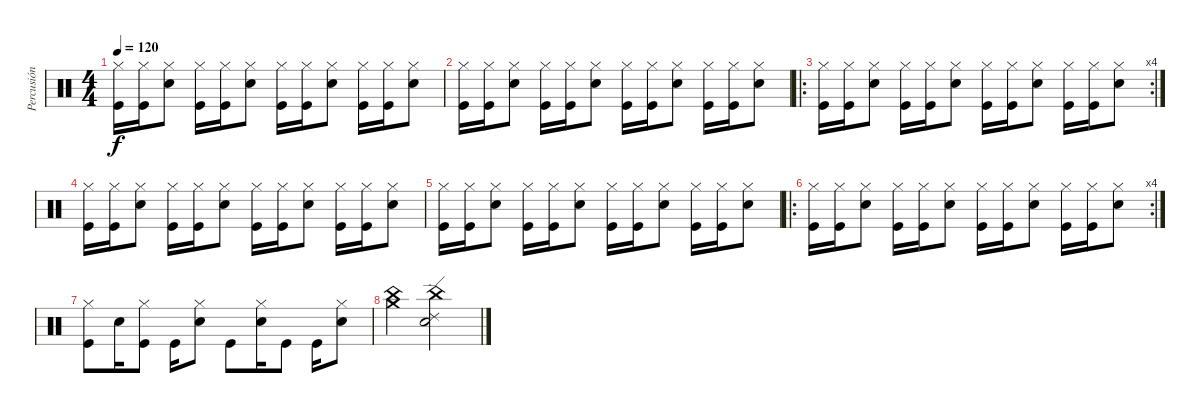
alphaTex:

\track ("Percusión" "Percusión") {instrument percussion}
\staff {score}
\articulation defaults
\ts (4 4)
\tempo 120
\clef neutral
\ks c
("Hi-Hat (closed)" "Kick (hit)").16{dy f} ("Hi-Hat (closed)" "Kick (hit)").16 ("Hi-Hat (closed)" "Electric Snare (hit)").8 ("Hi-Hat (closed)" "Kick (hit)").16 ("Hi-Hat (closed)" "Kick (hit)").16 ("Hi-Hat (closed)" "Electric Snare (hit)").8 ("Hi-Hat (closed)" "Kick (hit)").16 ("Hi-Hat (closed)" "Kick (hit)").16 ("Hi-Hat (closed)" "Electric Snare (hit)").8 ("Hi-Hat (closed)" "Kick (hit)").16 ("Hi-Hat (closed)" "Kick (hit)").16 ("Hi-Hat (closed)" "Electric Snare (hit)").8 |
("Hi-Hat (closed)" "Kick (hit)").16 ("Hi-Hat (closed)" "Kick (hit)").16 ("Hi-Hat (closed)" "Electric Snare (hit)").8 ("Hi-Hat (closed)" "Kick (hit)").16 ("Hi-Hat (closed)" "Kick (hit)").16 ("Hi-Hat (closed)" "Electric Snare (hit)").8 ("Hi-Hat (closed)" "Kick (hit)").16 ("Hi-Hat (closed)" "Kick (hit)").16 ("Hi-Hat (closed)" "Electric Snare (hit)").8 ("Hi-Hat (closed)" "Kick (hit)").16 ("Hi-Hat (closed)" "Kick (hit)").16 ("Hi-Hat (closed)" "Electric Snare (hit)").8 |
\ro
\rc 4
("Hi-Hat (closed)" "Kick (hit)").16 ("Hi-Hat (closed)" "Kick (hit)").16 ("Hi-Hat (closed)" "Electric Snare (hit)").8 ("Hi-Hat (closed)" "Kick (hit)").16 ("Hi-Hat (closed)" "Kick (hit)").16 ("Hi-Hat (closed)" "Electric Snare (hit)").8 ("Hi-Hat (closed)" "Kick (hit)").16 ("Hi-Hat (closed)" "Kick (hit)").16 ("Hi-Hat (closed)" "Electric Snare (hit)").8 ("Hi-Hat (closed)" "Kick (hit)").16 ("Hi-Hat (closed)" "Kick (hit)").16 ("Hi-Hat (closed)" "Electric Snare (hit)").8 |
("Hi-Hat (closed)" "Kick (hit)").16 ("Hi-Hat (closed)" "Kick (hit)").16 ("Hi-Hat (closed)" "Electric Snare (hit)").8 ("Hi-Hat (closed)" "Kick (hit)").16 ("Hi-Hat (closed)" "Kick (hit)").16 ("Hi-Hat (closed)" "Electric Snare (hit)").8 ("Hi-Hat (closed)" "Kick (hit)").16 ("Hi-Hat (closed)" "Kick (hit)").16 ("Hi-Hat (closed)" "Electric Snare (hit)").8 ("Hi-Hat (closed)" "Kick (hit)").16 ("Hi-Hat (closed)" "Kick (hit)").16 ("Hi-Hat (closed)" "Electric Snare (hit)").8 |
("Hi-Hat (closed)" "Kick (hit)").16 ("Hi-Hat (closed)" "Kick (hit)").16 ("Hi-Hat (closed)" "Electric Snare (hit)").8 ("Hi-Hat (closed)" "Kick (hit)").16 ("Hi-Hat (closed)" "Kick (hit)").16 ("Hi-Hat (closed)" "Electric Snare (hit)").8 ("Hi-Hat (closed)" "Kick (hit)").16 ("Hi-Hat (closed)" "Kick (hit)").16 ("Hi-Hat (closed)" "Electric Snare (hit)").8 ("Hi-Hat (closed)" "Kick (hit)").16 ("Hi-Hat (closed)" "Kick (hit)").16 ("Hi-Hat (closed)" "Electric Snare (hit)").8 |
\ro
\rc 4
("Hi-Hat (closed)" "Kick (hit)").16 ("Hi-Hat (closed)" "Kick (hit)").16 ("Hi-Hat (closed)" "Electric Snare (hit)").8 ("Hi-Hat (closed)" "Kick (hit)").16 ("Hi-Hat (closed)" "Kick (hit)").16 ("Hi-Hat (closed)" "Electric Snare (hit)").8 ("Hi-Hat (closed)" "Kick (hit)").16 ("Hi-Hat (closed)" "Kick (hit)").16 ("Hi-Hat (closed)" "Electric Snare (hit)").8 ("Hi-Hat (closed)" "Kick (hit)").16 ("Hi-Hat (closed)" "Kick (hit)").16 ("Hi-Hat (closed)" "Electric Snare (hit)").8 |
("Hi-Hat (closed)" "Kick (hit)").8 "Electric Snare (hit)".16 ("Hi-Hat (closed)" "Kick (hit)").8 "Kick (hit)".16 ("Hi-Hat (closed)" "Electric Snare (hit)").8 "Kick (hit)".8 ("Hi-Hat (closed)" "Electric Snare (hit)").16 "Kick (hit)".8 "Kick (hit)".16 ("Hi-Hat (closed)" "Electric Snare (hit)").8 |
("Crash medium (hit)" "China (hit)").2 ("Ride (edge) 2" "China (hit)" "Electric Snare (hit)").2
